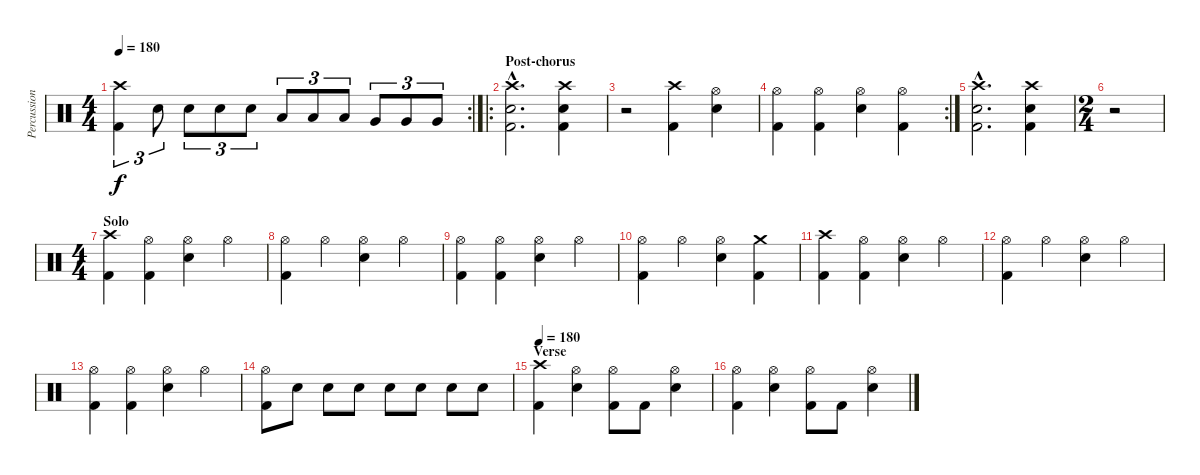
\track ("Percussion" "Percussion") {instrument percussion}
\staff {score}
\articulation defaults
\rc 2
\ts (4 4)
\tempo 180
\clef neutral
\ks c
("Crash high (hit)" "Kick (hit) 2").4{tu (3 2) dy f} "Snare (hit) 2".8{tu (3 2)} "Snare (hit) 2".8{tu (3 2)} "Snare (hit) 2".8{tu (3 2)} "Snare (hit) 2".8{tu (3 2)} "Low Tom (hit)".8{tu (3 2)} "Low Tom (hit)".8{tu (3 2)} "Low Tom (hit)".8{tu (3 2)} "Very Low Tom (hit)".8{tu (3 2)} "Very Low Tom (hit)".8{tu (3 2)} "Very Low Tom (hit)".8{tu (3 2)} |
\ro
\section ("" "Post-chorus")
("Crash high (hit)"{hac} "Snare (hit) 2"{hac} "Kick (hit) 2"{hac}).2{d} ("Crash high (hit)" "Snare (hit) 2" "Kick (hit) 2").4 |
r.2 ("Crash high (hit)" "Kick (hit) 2").4 ("Hi-Hat (open)" "Snare (hit) 2").4 |
\rc 2
("Hi-Hat (open)" "Kick (hit) 2").4 ("Hi-Hat (open)" "Kick (hit) 2").4 ("Hi-Hat (open)" "Snare (hit) 2").4 ("Hi-Hat (open)" "Kick (hit) 2").4 |
("Crash high (hit)"{hac} "Snare (hit) 2"{hac} "Kick (hit) 2"{hac}).2{d} ("Crash high (hit)" "Snare (hit) 2" "Kick (hit) 2").4 |
\ts (2 4)
r.2 |
\ts (4 4)
\section ("" "Solo")
("Crash high (hit)" "Kick (hit) 2").4 ("Hi-Hat (open)" "Kick (hit) 2").4 ("Hi-Hat (open)" "Snare (hit) 2").4 "Hi-Hat (open)".4 |
("Hi-Hat (open)" "Kick (hit) 2").4 "Hi-Hat (open)".4 ("Hi-Hat (open)" "Snare (hit) 2").4 "Hi-Hat (open)".4 |
("Hi-Hat (open)" "Kick (hit) 2").4 ("Hi-Hat (open)" "Kick (hit) 2").4 ("Hi-Hat (open)" "Snare (hit) 2").4 "Hi-Hat (open)".4 |
("Hi-Hat (open)" "Kick (hit) 2").4 "Hi-Hat (open)".4 ("Hi-Hat (open)" "Snare (hit) 2").4 ("Crash medium (hit)" "Kick (hit) 2").4 |
("Crash high (hit)" "Kick (hit) 2").4 ("Hi-Hat (open)" "Kick (hit) 2").4 ("Hi-Hat (open)" "Snare (hit) 2").4 "Hi-Hat (open)".4 |
("Hi-Hat (open)" "Kick (hit) 2").4 "Hi-Hat (open)".4 ("Hi-Hat (open)" "Snare (hit) 2").4 "Hi-Hat (open)".4 |
("Hi-Hat (open)" "Kick (hit) 2").4 ("Hi-Hat (open)" "Kick (hit) 2").4 ("Hi-Hat (open)" "Snare (hit) 2").4 "Hi-Hat (open)".4 |
("Hi-Hat (open)" "Kick (hit) 2").8 "Snare (hit) 2".8 "Snare (hit) 2".8 "Snare (hit) 2".8 "Snare (hit) 2".8 "Snare (hit) 2".8 "Snare (hit) 2".8 "Snare (hit) 2".8 |
\section ("" "Verse")
\tempo 180
("Crash high (hit)" "Kick (hit) 2").4 ("Hi-Hat (open)" "Snare (hit) 2").4 ("Hi-Hat (open)" "Kick (hit) 2").8 "Kick (hit) 2".8 ("Hi-Hat (open)" "Snare (hit) 2").4 |
("Hi-Hat (open)" "Kick (hit) 2").4 ("Hi-Hat (open)" "Snare (hit) 2").4 ("Hi-Hat (open)" "Kick (hit) 2").8 "Kick (hit) 2".8 ("Hi-Hat (open)" "Snare (hit) 2").4
